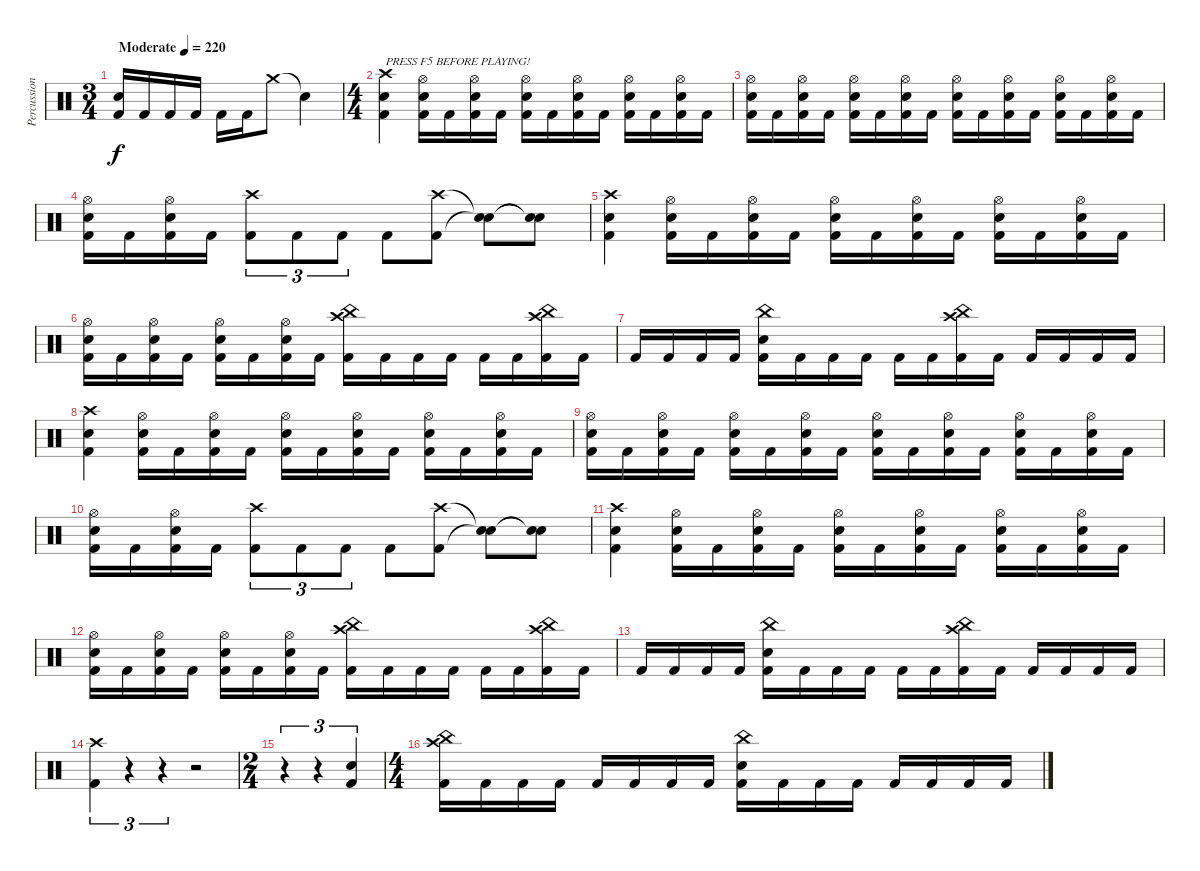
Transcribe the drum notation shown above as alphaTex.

\track ("Percussion" "Percussion") {instrument percussion}
\staff {score}
\articulation defaults
\ts (3 4)
\tempo (220 "Moderate")
\clef neutral
\ks c
("Electric Snare (hit)" "Kick (hit) 2").16{dy f} "Kick (hit) 2".16 "Kick (hit) 2".16 "Kick (hit) 2".16 "Kick (hit) 2".16 "Kick (hit) 2".16 "Crash medium (hit)".8 "Snare (hit)"{t}.4 |
\ts (4 4)
("Crash high (hit)" "Electric Snare (hit)" "Kick (hit) 2").4{txt "PRESS F5 BEFORE PLAYING!"} ("Hi-Hat (open)" "Electric Snare (hit)" "Kick (hit) 2").16 "Kick (hit) 2".16 ("Hi-Hat (open)" "Electric Snare (hit)" "Kick (hit) 2").16 "Kick (hit) 2".16 ("Hi-Hat (open)" "Electric Snare (hit)" "Kick (hit) 2").16 "Kick (hit) 2".16 ("Hi-Hat (open)" "Electric Snare (hit)" "Kick (hit) 2").16 "Kick (hit) 2".16 ("Hi-Hat (open)" "Electric Snare (hit)" "Kick (hit) 2").16 "Kick (hit) 2".16 ("Hi-Hat (open)" "Electric Snare (hit)" "Kick (hit) 2").16 "Kick (hit) 2".16 |
("Hi-Hat (open)" "Electric Snare (hit)" "Kick (hit) 2").16 "Kick (hit) 2".16 ("Hi-Hat (open)" "Electric Snare (hit)" "Kick (hit) 2").16 "Kick (hit) 2".16 ("Hi-Hat (open)" "Electric Snare (hit)" "Kick (hit) 2").16 "Kick (hit) 2".16 ("Hi-Hat (open)" "Electric Snare (hit)" "Kick (hit) 2").16 "Kick (hit) 2".16 ("Hi-Hat (open)" "Electric Snare (hit)" "Kick (hit) 2").16 "Kick (hit) 2".16 ("Hi-Hat (open)" "Electric Snare (hit)" "Kick (hit) 2").16 "Kick (hit) 2".16 ("Hi-Hat (open)" "Electric Snare (hit)" "Kick (hit) 2").16 "Kick (hit) 2".16 ("Hi-Hat (open)" "Electric Snare (hit)" "Kick (hit) 2").16 "Kick (hit) 2".16 |
("Hi-Hat (open)" "Electric Snare (hit)" "Kick (hit) 2").16 "Kick (hit) 2".16 ("Hi-Hat (open)" "Electric Snare (hit)" "Kick (hit) 2").16 "Kick (hit) 2".16 ("Crash high (hit)" "Kick (hit) 2").8{tu (3 2)} "Kick (hit) 2".8{tu (3 2)} "Kick (hit) 2".8{tu (3 2)} "Kick (hit) 2".8 ("Crash high (hit)" "Kick (hit) 2").8 ("Snare (hit)"{t} "Snare (hit)"{t}).8 ("Snare (hit)"{t} "Snare (hit)"{t}).8 |
("Crash high (hit)" "Electric Snare (hit)" "Kick (hit) 2").4 ("Hi-Hat (open)" "Electric Snare (hit)" "Kick (hit) 2").16 "Kick (hit) 2".16 ("Hi-Hat (open)" "Electric Snare (hit)" "Kick (hit) 2").16 "Kick (hit) 2".16 ("Hi-Hat (open)" "Electric Snare (hit)" "Kick (hit) 2").16 "Kick (hit) 2".16 ("Hi-Hat (open)" "Electric Snare (hit)" "Kick (hit) 2").16 "Kick (hit) 2".16 ("Hi-Hat (open)" "Electric Snare (hit)" "Kick (hit) 2").16 "Kick (hit) 2".16 ("Hi-Hat (open)" "Electric Snare (hit)" "Kick (hit) 2").16 "Kick (hit) 2".16 |
("Hi-Hat (open)" "Electric Snare (hit)" "Kick (hit) 2").16 "Kick (hit) 2".16 ("Hi-Hat (open)" "Electric Snare (hit)" "Kick (hit) 2").16 "Kick (hit) 2".16 ("Hi-Hat (open)" "Electric Snare (hit)" "Kick (hit) 2").16 "Kick (hit) 2".16 ("Hi-Hat (open)" "Electric Snare (hit)" "Kick (hit) 2").16 "Kick (hit) 2".16 ("Crash high (hit)" "China (hit)" "Kick (hit) 2").16 "Kick (hit) 2".16 "Kick (hit) 2".16 "Kick (hit) 2".16 "Kick (hit) 2".16 "Kick (hit) 2".16 ("China (hit)" "Crash high (hit)" "Kick (hit) 2").16 "Kick (hit) 2".16 |
"Kick (hit) 2".16 "Kick (hit) 2".16 "Kick (hit) 2".16 "Kick (hit) 2".16 ("China (hit)" "Electric Snare (hit)" "Kick (hit) 2").16 "Kick (hit) 2".16 "Kick (hit) 2".16 "Kick (hit) 2".16 "Kick (hit) 2".16 "Kick (hit) 2".16 ("China (hit)" "Crash high (hit)" "Kick (hit) 2").16 "Kick (hit) 2".16 "Kick (hit) 2".16 "Kick (hit) 2".16 "Kick (hit) 2".16 "Kick (hit) 2".16 |
("Crash high (hit)" "Electric Snare (hit)" "Kick (hit) 2").4 ("Hi-Hat (open)" "Electric Snare (hit)" "Kick (hit) 2").16 "Kick (hit) 2".16 ("Hi-Hat (open)" "Electric Snare (hit)" "Kick (hit) 2").16 "Kick (hit) 2".16 ("Hi-Hat (open)" "Electric Snare (hit)" "Kick (hit) 2").16 "Kick (hit) 2".16 ("Hi-Hat (open)" "Electric Snare (hit)" "Kick (hit) 2").16 "Kick (hit) 2".16 ("Hi-Hat (open)" "Electric Snare (hit)" "Kick (hit) 2").16 "Kick (hit) 2".16 ("Hi-Hat (open)" "Electric Snare (hit)" "Kick (hit) 2").16 "Kick (hit) 2".16 |
("Hi-Hat (open)" "Electric Snare (hit)" "Kick (hit) 2").16 "Kick (hit) 2".16 ("Hi-Hat (open)" "Electric Snare (hit)" "Kick (hit) 2").16 "Kick (hit) 2".16 ("Hi-Hat (open)" "Electric Snare (hit)" "Kick (hit) 2").16 "Kick (hit) 2".16 ("Hi-Hat (open)" "Electric Snare (hit)" "Kick (hit) 2").16 "Kick (hit) 2".16 ("Hi-Hat (open)" "Electric Snare (hit)" "Kick (hit) 2").16 "Kick (hit) 2".16 ("Hi-Hat (open)" "Electric Snare (hit)" "Kick (hit) 2").16 "Kick (hit) 2".16 ("Hi-Hat (open)" "Electric Snare (hit)" "Kick (hit) 2").16 "Kick (hit) 2".16 ("Hi-Hat (open)" "Electric Snare (hit)" "Kick (hit) 2").16 "Kick (hit) 2".16 |
("Hi-Hat (open)" "Electric Snare (hit)" "Kick (hit) 2").16 "Kick (hit) 2".16 ("Hi-Hat (open)" "Electric Snare (hit)" "Kick (hit) 2").16 "Kick (hit) 2".16 ("Crash high (hit)" "Kick (hit) 2").8{tu (3 2)} "Kick (hit) 2".8{tu (3 2)} "Kick (hit) 2".8{tu (3 2)} "Kick (hit) 2".8 ("Crash high (hit)" "Kick (hit) 2").8 ("Snare (hit)"{t} "Snare (hit)"{t}).8 ("Snare (hit)"{t} "Snare (hit)"{t}).8 |
("Crash high (hit)" "Electric Snare (hit)" "Kick (hit) 2").4 ("Hi-Hat (open)" "Electric Snare (hit)" "Kick (hit) 2").16 "Kick (hit) 2".16 ("Hi-Hat (open)" "Electric Snare (hit)" "Kick (hit) 2").16 "Kick (hit) 2".16 ("Hi-Hat (open)" "Electric Snare (hit)" "Kick (hit) 2").16 "Kick (hit) 2".16 ("Hi-Hat (open)" "Electric Snare (hit)" "Kick (hit) 2").16 "Kick (hit) 2".16 ("Hi-Hat (open)" "Electric Snare (hit)" "Kick (hit) 2").16 "Kick (hit) 2".16 ("Hi-Hat (open)" "Electric Snare (hit)" "Kick (hit) 2").16 "Kick (hit) 2".16 |
("Hi-Hat (open)" "Electric Snare (hit)" "Kick (hit) 2").16 "Kick (hit) 2".16 ("Hi-Hat (open)" "Electric Snare (hit)" "Kick (hit) 2").16 "Kick (hit) 2".16 ("Hi-Hat (open)" "Electric Snare (hit)" "Kick (hit) 2").16 "Kick (hit) 2".16 ("Hi-Hat (open)" "Electric Snare (hit)" "Kick (hit) 2").16 "Kick (hit) 2".16 ("Crash high (hit)" "China (hit)" "Kick (hit) 2").16 "Kick (hit) 2".16 "Kick (hit) 2".16 "Kick (hit) 2".16 "Kick (hit) 2".16 "Kick (hit) 2".16 ("China (hit)" "Crash high (hit)" "Kick (hit) 2").16 "Kick (hit) 2".16 |
"Kick (hit) 2".16 "Kick (hit) 2".16 "Kick (hit) 2".16 "Kick (hit) 2".16 ("China (hit)" "Electric Snare (hit)" "Kick (hit) 2").16 "Kick (hit) 2".16 "Kick (hit) 2".16 "Kick (hit) 2".16 "Kick (hit) 2".16 "Kick (hit) 2".16 ("China (hit)" "Crash high (hit)" "Kick (hit) 2").16 "Kick (hit) 2".16 "Kick (hit) 2".16 "Kick (hit) 2".16 "Kick (hit) 2".16 "Kick (hit) 2".16 |
("Crash high (hit)" "Kick (hit) 2").4{tu (3 2)} r.4{tu (3 2)} r.4{tu (3 2)} r.2 |
\ts (2 4)
r.4{tu (3 2)} r.4{tu (3 2)} ("Electric Snare (hit)" "Kick (hit) 2").4{tu (3 2)} |
\ts (4 4)
("Crash high (hit)" "China (hit)" "Kick (hit) 2").16 "Kick (hit) 2".16 "Kick (hit) 2".16 "Kick (hit) 2".16 "Kick (hit) 2".16 "Kick (hit) 2".16 "Kick (hit) 2".16 "Kick (hit) 2".16 ("China (hit)" "Electric Snare (hit)" "Kick (hit) 2").16 "Kick (hit) 2".16 "Kick (hit) 2".16 "Kick (hit) 2".16 "Kick (hit) 2".16 "Kick (hit) 2".16 "Kick (hit) 2".16 "Kick (hit) 2".16
